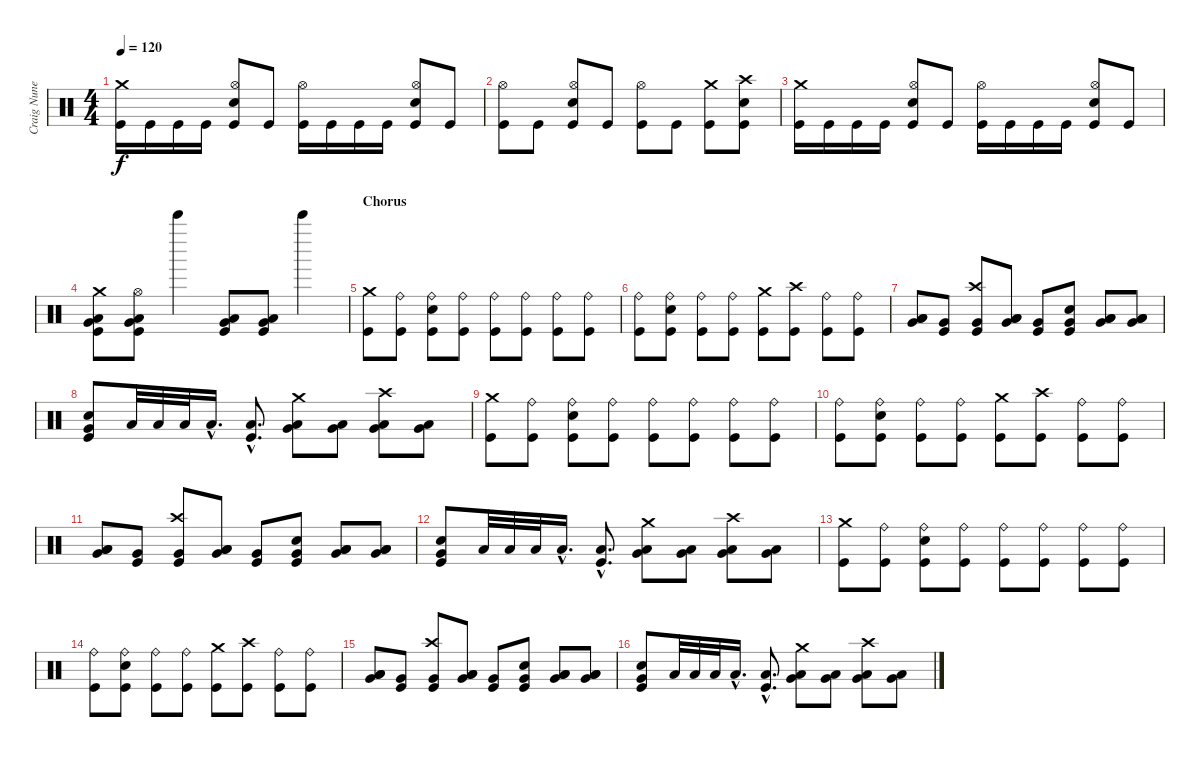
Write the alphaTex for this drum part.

\track ("Craig Nunenmacher" "Craig Nune") {instrument percussion}
\staff {score}
\articulation defaults
\ts (4 4)
\tempo 120
\clef neutral
\ks c
("Crash medium (hit)" "Kick (hit)").16{dy f} "Kick (hit)".16 "Kick (hit)".16 "Kick (hit)".16 ("Hi-Hat (open)" "Snare (hit) 2" "Kick (hit)").8 "Kick (hit)".8 ("Hi-Hat (open)" "Kick (hit)").16 "Kick (hit)".16 "Kick (hit)".16 "Kick (hit)".16 ("Hi-Hat (open)" "Snare (hit) 2" "Kick (hit)").8 "Kick (hit)".8 |
("Hi-Hat (open)" "Kick (hit)").8 "Kick (hit)".8 ("Hi-Hat (open)" "Snare (hit) 2" "Kick (hit)").8 "Kick (hit)".8 ("Hi-Hat (open)" "Kick (hit)").8 "Kick (hit)".8 ("Crash medium (hit)" "Kick (hit)").8 ("Crash high (hit)" "Snare (hit) 2" "Kick (hit)").8 |
("Crash medium (hit)" "Kick (hit)").16 "Kick (hit)".16 "Kick (hit)".16 "Kick (hit)".16 ("Hi-Hat (open)" "Snare (hit) 2" "Kick (hit)").8 "Kick (hit)".8 ("Hi-Hat (open)" "Kick (hit)").16 "Kick (hit)".16 "Kick (hit)".16 "Kick (hit)".16 ("Hi-Hat (open)" "Snare (hit) 2" "Kick (hit)").8 "Kick (hit)".8 |
("Crash medium (hit)" "Low Tom (hit)" "Very Low Tom (hit)" "Kick (hit)").8 ("Hi-Hat (open)" "Low Tom (hit)" "Very Low Tom (hit)" "Kick (hit)").8 "Bell Tree (hit)".4 ("Low Tom (hit)" "Very Low Tom (hit)" "Kick (hit)").8 ("Low Tom (hit)" "Very Low Tom (hit)" "Kick (hit)").8 "Bell Tree (hit)".4 |
\section ("" "Chorus")
("Crash medium (hit)" "Kick (hit)").8 ("Ride (bell)" "Kick (hit)").8 ("Ride (bell)" "Snare (hit) 2" "Kick (hit)").8 ("Ride (bell)" "Kick (hit)").8 ("Ride (bell)" "Kick (hit)").8 ("Ride (bell)" "Kick (hit)").8 ("Ride (bell)" "Kick (hit)").8 ("Ride (bell)" "Kick (hit)").8 |
("Ride (bell)" "Kick (hit)").8 ("Ride (bell)" "Snare (hit) 2" "Kick (hit)").8 ("Ride (bell)" "Kick (hit)").8 ("Ride (bell)" "Kick (hit)").8 ("Crash medium (hit)" "Kick (hit)").8 ("Crash high (hit)" "Kick (hit)").8 ("Ride (bell)" "Kick (hit)").8 ("Ride (bell)" "Kick (hit)").8 |
("Low Tom (hit)" "Low Tom (hit)" "Very Low Tom (hit)").8{bd 120} ("Very Low Tom (hit)" "Kick (hit)").8 ("Crash high (hit)" "Very Low Tom (hit)" "Kick (hit)").8 ("Low Tom (hit)" "Low Tom (hit)" "Very Low Tom (hit)").8{bd 120} ("Very Low Tom (hit)" "Kick (hit)").8 ("Snare (hit) 2" "Very Low Tom (hit)" "Kick (hit)").8 ("Low Tom (hit)" "Low Tom (hit)" "Very Low Tom (hit)").8{bd 120} ("Low Tom (hit)" "Low Tom (hit)" "Very Low Tom (hit)").8{bd 120} |
("Snare (hit) 2" "Very Low Tom (hit)" "Kick (hit)").8 "Low Tom (hit)".32 "Low Tom (hit)".32 "Low Tom (hit)".32 "Low Tom (hit)"{hac}.16{d} ("Low Tom (hit)"{hac} "Kick (hit)"{hac}).8{d} ("Crash medium (hit)" "Low Tom (hit)" "Very Low Tom (hit)").8 ("Low Tom (hit)" "Very Low Tom (hit)").8 ("Crash high (hit)" "Low Tom (hit)" "Very Low Tom (hit)").8 ("Low Tom (hit)" "Very Low Tom (hit)").8 |
("Crash medium (hit)" "Kick (hit)").8 ("Ride (bell)" "Kick (hit)").8 ("Ride (bell)" "Snare (hit) 2" "Kick (hit)").8 ("Ride (bell)" "Kick (hit)").8 ("Ride (bell)" "Kick (hit)").8 ("Ride (bell)" "Kick (hit)").8 ("Ride (bell)" "Kick (hit)").8 ("Ride (bell)" "Kick (hit)").8 |
("Ride (bell)" "Kick (hit)").8 ("Ride (bell)" "Snare (hit) 2" "Kick (hit)").8 ("Ride (bell)" "Kick (hit)").8 ("Ride (bell)" "Kick (hit)").8 ("Crash medium (hit)" "Kick (hit)").8 ("Crash high (hit)" "Kick (hit)").8 ("Ride (bell)" "Kick (hit)").8 ("Ride (bell)" "Kick (hit)").8 |
("Low Tom (hit)" "Low Tom (hit)" "Very Low Tom (hit)").8{bd 120} ("Very Low Tom (hit)" "Kick (hit)").8 ("Crash high (hit)" "Very Low Tom (hit)" "Kick (hit)").8 ("Low Tom (hit)" "Low Tom (hit)" "Very Low Tom (hit)").8{bd 120} ("Very Low Tom (hit)" "Kick (hit)").8 ("Snare (hit) 2" "Very Low Tom (hit)" "Kick (hit)").8 ("Low Tom (hit)" "Low Tom (hit)" "Very Low Tom (hit)").8{bd 120} ("Low Tom (hit)" "Low Tom (hit)" "Very Low Tom (hit)").8{bd 120} |
("Snare (hit) 2" "Very Low Tom (hit)" "Kick (hit)").8 "Low Tom (hit)".32 "Low Tom (hit)".32 "Low Tom (hit)".32 "Low Tom (hit)"{hac}.16{d} ("Low Tom (hit)"{hac} "Kick (hit)"{hac}).8{d} ("Crash medium (hit)" "Low Tom (hit)" "Very Low Tom (hit)").8 ("Low Tom (hit)" "Very Low Tom (hit)").8 ("Crash high (hit)" "Low Tom (hit)" "Very Low Tom (hit)").8 ("Low Tom (hit)" "Very Low Tom (hit)").8 |
("Crash medium (hit)" "Kick (hit)").8 ("Ride (bell)" "Kick (hit)").8 ("Ride (bell)" "Snare (hit) 2" "Kick (hit)").8 ("Ride (bell)" "Kick (hit)").8 ("Ride (bell)" "Kick (hit)").8 ("Ride (bell)" "Kick (hit)").8 ("Ride (bell)" "Kick (hit)").8 ("Ride (bell)" "Kick (hit)").8 |
("Ride (bell)" "Kick (hit)").8 ("Ride (bell)" "Snare (hit) 2" "Kick (hit)").8 ("Ride (bell)" "Kick (hit)").8 ("Ride (bell)" "Kick (hit)").8 ("Crash medium (hit)" "Kick (hit)").8 ("Crash high (hit)" "Kick (hit)").8 ("Ride (bell)" "Kick (hit)").8 ("Ride (bell)" "Kick (hit)").8 |
("Low Tom (hit)" "Low Tom (hit)" "Very Low Tom (hit)").8{bd 120} ("Very Low Tom (hit)" "Kick (hit)").8 ("Crash high (hit)" "Very Low Tom (hit)" "Kick (hit)").8 ("Low Tom (hit)" "Low Tom (hit)" "Very Low Tom (hit)").8{bd 120} ("Very Low Tom (hit)" "Kick (hit)").8 ("Snare (hit) 2" "Very Low Tom (hit)" "Kick (hit)").8 ("Low Tom (hit)" "Low Tom (hit)" "Very Low Tom (hit)").8{bd 120} ("Low Tom (hit)" "Low Tom (hit)" "Very Low Tom (hit)").8{bd 120} |
("Snare (hit) 2" "Very Low Tom (hit)" "Kick (hit)").8 "Low Tom (hit)".32 "Low Tom (hit)".32 "Low Tom (hit)".32 "Low Tom (hit)"{hac}.16{d} ("Low Tom (hit)"{hac} "Kick (hit)"{hac}).8{d} ("Crash medium (hit)" "Low Tom (hit)" "Very Low Tom (hit)").8 ("Low Tom (hit)" "Very Low Tom (hit)").8 ("Crash high (hit)" "Low Tom (hit)" "Very Low Tom (hit)").8 ("Low Tom (hit)" "Very Low Tom (hit)").8
